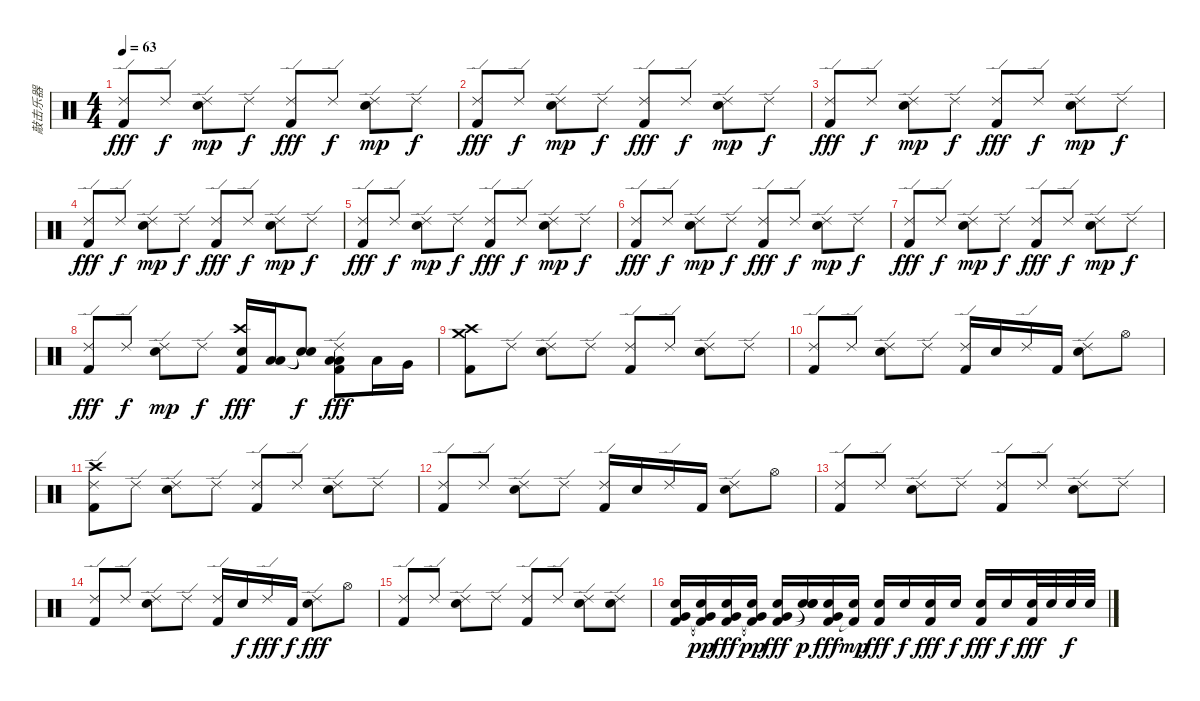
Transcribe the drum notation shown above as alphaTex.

\track ("敲击乐器" "敲击乐器") {instrument percussion}
\staff {score}
\articulation defaults
\ts (4 4)
\tempo 63
\clef neutral
\ks c
("Ride (edge) 2" "Kick (hit) 2").8{dy fff} "Ride (edge) 2".8{dy f} ("Ride (edge) 2" "Electric Snare (hit)").8{dy mp} "Ride (edge) 2".8{dy f} ("Ride (edge) 2" "Kick (hit) 2").8{dy fff} "Ride (edge) 2".8{dy f} ("Ride (edge) 2" "Electric Snare (hit)").8{dy mp} "Ride (edge) 2".8{dy f} |
("Ride (edge) 2" "Kick (hit) 2").8{dy fff} "Ride (edge) 2".8{dy f} ("Ride (edge) 2" "Electric Snare (hit)").8{dy mp} "Ride (edge) 2".8{dy f} ("Ride (edge) 2" "Kick (hit) 2").8{dy fff} "Ride (edge) 2".8{dy f} ("Ride (edge) 2" "Electric Snare (hit)").8{dy mp} "Ride (edge) 2".8{dy f} |
("Ride (edge) 2" "Kick (hit) 2").8{dy fff} "Ride (edge) 2".8{dy f} ("Ride (edge) 2" "Electric Snare (hit)").8{dy mp} "Ride (edge) 2".8{dy f} ("Ride (edge) 2" "Kick (hit) 2").8{dy fff} "Ride (edge) 2".8{dy f} ("Ride (edge) 2" "Electric Snare (hit)").8{dy mp} "Ride (edge) 2".8{dy f} |
("Ride (edge) 2" "Kick (hit) 2").8{dy fff} "Ride (edge) 2".8{dy f} ("Ride (edge) 2" "Electric Snare (hit)").8{dy mp} "Ride (edge) 2".8{dy f} ("Ride (edge) 2" "Kick (hit) 2").8{dy fff} "Ride (edge) 2".8{dy f} ("Ride (edge) 2" "Electric Snare (hit)").8{dy mp} "Ride (edge) 2".8{dy f} |
("Ride (edge) 2" "Kick (hit) 2").8{dy fff} "Ride (edge) 2".8{dy f} ("Ride (edge) 2" "Electric Snare (hit)").8{dy mp} "Ride (edge) 2".8{dy f} ("Ride (edge) 2" "Kick (hit) 2").8{dy fff} "Ride (edge) 2".8{dy f} ("Ride (edge) 2" "Electric Snare (hit)").8{dy mp} "Ride (edge) 2".8{dy f} |
("Ride (edge) 2" "Kick (hit) 2").8{dy fff} "Ride (edge) 2".8{dy f} ("Ride (edge) 2" "Electric Snare (hit)").8{dy mp} "Ride (edge) 2".8{dy f} ("Ride (edge) 2" "Kick (hit) 2").8{dy fff} "Ride (edge) 2".8{dy f} ("Ride (edge) 2" "Electric Snare (hit)").8{dy mp} "Ride (edge) 2".8{dy f} |
("Ride (edge) 2" "Kick (hit) 2").8{dy fff} "Ride (edge) 2".8{dy f} ("Ride (edge) 2" "Electric Snare (hit)").8{dy mp} "Ride (edge) 2".8{dy f} ("Ride (edge) 2" "Kick (hit) 2").8{dy fff} "Ride (edge) 2".8{dy f} ("Ride (edge) 2" "Electric Snare (hit)").8{dy mp} "Ride (edge) 2".8{dy f} |
("Ride (edge) 2" "Kick (hit) 2").8{dy fff} "Ride (edge) 2".8{dy f} ("Ride (edge) 2" "Electric Snare (hit)").8{dy mp} "Ride (edge) 2".8{dy f} ("Crash high (hit)" "Snare (hit) 2" "Kick (hit) 2").16{dy fff} ("Low Tom (hit)" "Low Tom (hit)").16 ("Electric Snare (hit)"{t} "Snare (hit)"{t}).8{dy f} ("Ride (edge) 2" "Low Tom (hit)" "Low Tom (hit)" "Kick (hit) 2").8{dy fff} "Low Tom (hit)".16 "Very Low Tom (hit)".16 |
("Crash medium (hit)" "Crash high (hit)" "Kick (hit) 2").8 "Ride (edge) 2".8 ("Ride (edge) 2" "Snare (hit) 2").8 "Ride (edge) 2".8 ("Ride (edge) 2" "Kick (hit) 2").8 "Ride (edge) 2".8 ("Ride (edge) 2" "Snare (hit) 2").8 "Ride (edge) 2".8 |
("Ride (edge) 2" "Kick (hit) 2").8 "Ride (edge) 2".8 ("Ride (edge) 2" "Snare (hit) 2").8 "Ride (edge) 2".8 ("Ride (edge) 2" "Kick (hit) 2").16 "Snare (hit) 2".16 "Ride (edge) 2".16 "Kick (hit) 2".16 ("Ride (edge) 2" "Snare (hit) 2").8 "Hi-Hat (open)".8 |
("Ride (edge) 2" "Crash high (hit)" "Kick (hit) 2").8 "Ride (edge) 2".8 ("Ride (edge) 2" "Snare (hit) 2").8 "Ride (edge) 2".8 ("Ride (edge) 2" "Kick (hit) 2").8 "Ride (edge) 2".8 ("Ride (edge) 2" "Snare (hit) 2").8 "Ride (edge) 2".8 |
("Ride (edge) 2" "Kick (hit) 2").8 "Ride (edge) 2".8 ("Ride (edge) 2" "Snare (hit) 2").8 "Ride (edge) 2".8 ("Ride (edge) 2" "Kick (hit) 2").16 "Snare (hit) 2".16 "Ride (edge) 2".16 "Kick (hit) 2".16 ("Ride (edge) 2" "Snare (hit) 2").8 "Hi-Hat (open)".8 |
("Ride (edge) 2" "Kick (hit) 2").8 "Ride (edge) 2".8 ("Ride (edge) 2" "Snare (hit) 2").8 "Ride (edge) 2".8 ("Ride (edge) 2" "Kick (hit) 2").8 "Ride (edge) 2".8 ("Ride (edge) 2" "Snare (hit) 2").8 "Ride (edge) 2".8 |
("Ride (edge) 2" "Kick (hit) 2").8 "Ride (edge) 2".8 ("Ride (edge) 2" "Snare (hit) 2").8 "Ride (edge) 2".8 ("Ride (edge) 2" "Kick (hit) 2").16 "Snare (hit) 2".16{dy f} "Ride (edge) 2".16{dy fff} "Kick (hit) 2".16{dy f} ("Ride (edge) 2" "Snare (hit) 2").8{dy fff} "Hi-Hat (open)".8 |
("Ride (edge) 2" "Kick (hit) 2").8 "Ride (edge) 2".8 ("Ride (edge) 2" "Snare (hit) 2").8 "Ride (edge) 2".8 ("Ride (edge) 2" "Kick (hit) 2").8 "Ride (edge) 2".8 ("Ride (edge) 2" "Snare (hit) 2").8 ("Ride (edge) 2" "Snare (hit) 2").8 |
("Snare (hit) 2" "Very Low Tom (hit)" "Kick (hit) 2").16 ("Snare (hit) 2" "Very Low Tom (hit)"{t} "Kick (hit) 2"{t}).16{dy pp} ("Snare (hit) 2" "Very Low Tom (hit)" "Kick (hit) 2").16{dy fff} ("Snare (hit) 2" "Very Low Tom (hit)"{t} "Kick (hit) 2"{t}).16{dy pp} ("Snare (hit) 2" "Very Low Tom (hit)" "Kick (hit) 2").16{dy fff} ("Snare (hit) 2" "Snare (hit)"{t} "Snare (hit)"{t}).16{dy p} ("Snare (hit) 2" "Very Low Tom (hit)" "Kick (hit) 2").16{dy fff} ("Snare (hit) 2" "Kick (hit) 2"{t}).16{dy mp} ("Snare (hit) 2" "Kick (hit) 2").16{dy fff} "Snare (hit) 2".16{dy f} ("Snare (hit) 2" "Kick (hit) 2").16{dy fff} "Snare (hit) 2".16{dy f} ("Snare (hit) 2" "Kick (hit) 2").16{dy fff} "Snare (hit) 2".16{dy f} ("Snare (hit) 2" "Kick (hit) 2").32{dy fff} "Snare (hit) 2".32 "Snare (hit) 2".32{dy f} "Snare (hit) 2".32
